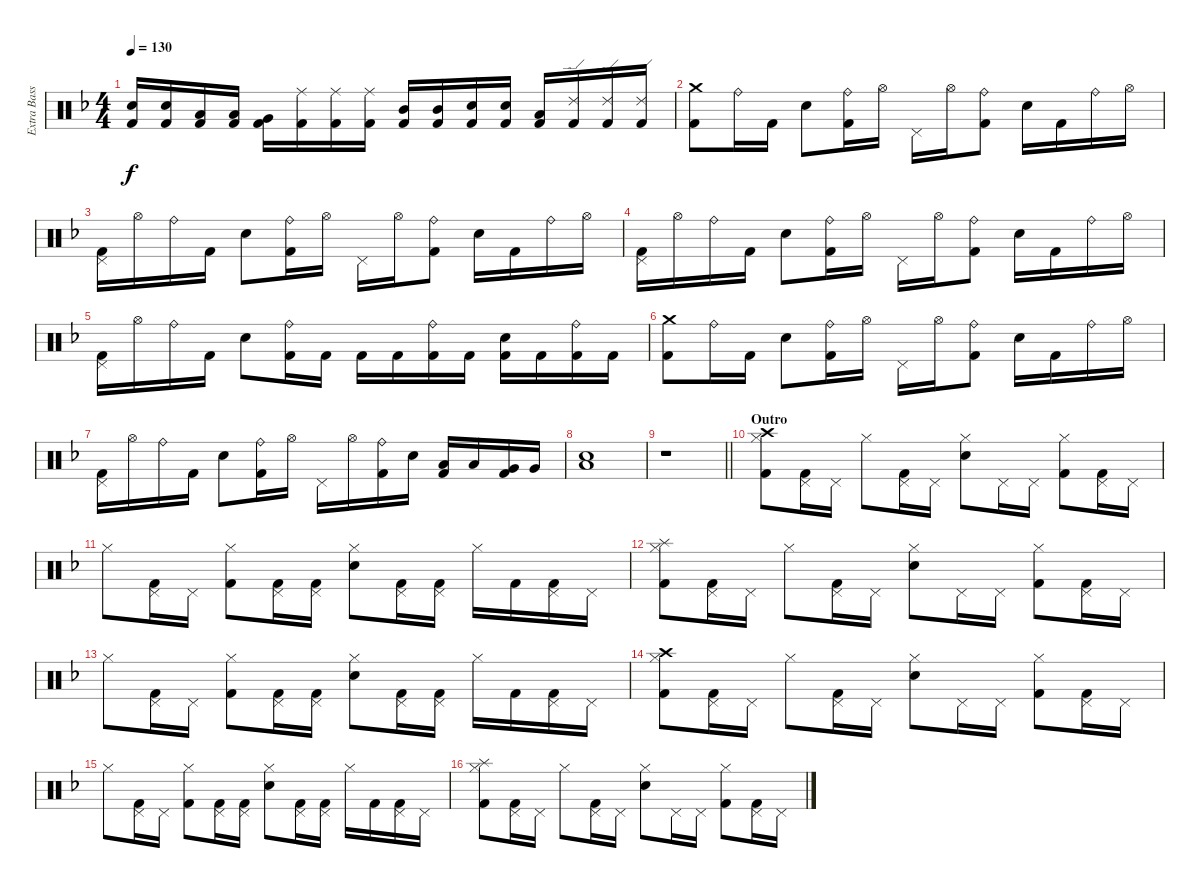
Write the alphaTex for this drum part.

\track ("Extra BassDrum" "Extra Bass") {instrument percussion}
\staff {score}
\articulation defaults
\ts (4 4)
\tempo 130
\clef neutral
\ks f
("Snare (hit) 2" "Kick (hit) 2").16{dy f} ("Snare (hit) 2" "Kick (hit) 2").16 ("Low Tom (hit)" "Kick (hit) 2").16 ("Low Tom (hit)" "Kick (hit) 2").16 ("Very Low Tom (hit)" "Kick (hit) 2").16 ("Ride (middle)" "Kick (hit) 2").16 ("Ride (middle)" "Kick (hit) 2").16 ("Ride (middle)" "Kick (hit) 2").16 ("Mid Tom (hit)" "Kick (hit) 2").16 ("Mid Tom (hit)" "Kick (hit) 2").16 ("Snare (hit) 2" "Kick (hit) 2").16 ("Snare (hit) 2" "Kick (hit) 2").16 ("Low Tom (hit)" "Kick (hit) 2").16 ("Ride (edge) 2" "Kick (hit) 2").16 ("Ride (edge) 2" "Kick (hit) 2").16 ("Ride (edge) 2" "Kick (hit) 2").16 |
("Crash medium (hit)" "Kick (hit) 2").8 "Ride (bell)".16 "Kick (hit) 2".16 "Snare (hit) 2".8 ("Ride (bell)" "Kick (hit) 2").16 "Hi-Hat (open)".16 "Pedal Hi-Hat (hit)".16 "Hi-Hat (open)".16 ("Ride (bell)" "Kick (hit) 2").8 "Snare (hit) 2".16 "Kick (hit) 2".16 "Ride (bell)".16 "Hi-Hat (open)".16 |
("Pedal Hi-Hat (hit)" "Kick (hit) 2").16 "Hi-Hat (open)".16 "Ride (bell)".16 "Kick (hit) 2".16 "Snare (hit) 2".8 ("Ride (bell)" "Kick (hit) 2").16 "Hi-Hat (open)".16 "Pedal Hi-Hat (hit)".16 "Hi-Hat (open)".16 ("Ride (bell)" "Kick (hit) 2").8 "Snare (hit) 2".16 "Kick (hit) 2".16 "Ride (bell)".16 "Hi-Hat (open)".16 |
("Pedal Hi-Hat (hit)" "Kick (hit) 2").16 "Hi-Hat (open)".16 "Ride (bell)".16 "Kick (hit) 2".16 "Snare (hit) 2".8 ("Ride (bell)" "Kick (hit) 2").16 "Hi-Hat (open)".16 "Pedal Hi-Hat (hit)".16 "Hi-Hat (open)".16 ("Ride (bell)" "Kick (hit) 2").8 "Snare (hit) 2".16 "Kick (hit) 2".16 "Ride (bell)".16 "Hi-Hat (open)".16 |
("Pedal Hi-Hat (hit)" "Kick (hit) 2").16 "Hi-Hat (open)".16 "Ride (bell)".16 "Kick (hit) 2".16 "Snare (hit) 2".8 ("Ride (bell)" "Kick (hit) 2").16 "Kick (hit) 2".16 "Kick (hit) 2".16 "Kick (hit) 2".16 ("Ride (bell)" "Kick (hit) 2").16 "Kick (hit) 2".16 ("Snare (hit) 2" "Kick (hit) 2").16 "Kick (hit) 2".16 ("Ride (bell)" "Kick (hit) 2").16 "Kick (hit) 2".16 |
("Crash medium (hit)" "Kick (hit) 2").8 "Ride (bell)".16 "Kick (hit) 2".16 "Snare (hit) 2".8 ("Ride (bell)" "Kick (hit) 2").16 "Hi-Hat (open)".16 "Pedal Hi-Hat (hit)".16 "Hi-Hat (open)".16 ("Ride (bell)" "Kick (hit) 2").8 "Snare (hit) 2".16 "Kick (hit) 2".16 "Ride (bell)".16 "Hi-Hat (open)".16 |
("Pedal Hi-Hat (hit)" "Kick (hit) 2").16 "Hi-Hat (open)".16 "Ride (bell)".16 "Kick (hit) 2".16 "Snare (hit) 2".8 ("Ride (bell)" "Kick (hit) 2").16 "Hi-Hat (open)".16 "Pedal Hi-Hat (hit)".16 "Hi-Hat (open)".16 ("Ride (bell)" "Kick (hit) 2").16 "Snare (hit) 2".16 ("Low Tom (hit)" "Kick (hit) 2").16 "Low Tom (hit)".16 ("Very Low Tom (hit)" "Kick (hit) 2").16 "Very Low Tom (hit)".16 |
("Low Floor Tom (hit)" "Snare (hit) 2").1 |
\barLineRight lightlight
r.1 |
\section ("" "Outro")
("Crash high (hit)" "Hi-Hat (closed)" "Kick (hit) 2").8 ("Pedal Hi-Hat (hit)" "Kick (hit) 2").16 "Pedal Hi-Hat (hit)".16 "Hi-Hat (closed)".8 ("Pedal Hi-Hat (hit)" "Kick (hit) 2").16 "Pedal Hi-Hat (hit)".16 ("Hi-Hat (closed)" "Snare (hit) 2").8 "Pedal Hi-Hat (hit)".16 "Pedal Hi-Hat (hit)".16 ("Hi-Hat (closed)" "Kick (hit) 2").8 ("Pedal Hi-Hat (hit)" "Kick (hit) 2").16 "Pedal Hi-Hat (hit)".16 |
"Hi-Hat (closed)".8 ("Pedal Hi-Hat (hit)" "Kick (hit) 2").16 "Pedal Hi-Hat (hit)".16 ("Hi-Hat (closed)" "Kick (hit) 2").8 ("Pedal Hi-Hat (hit)" "Kick (hit) 2").16 ("Pedal Hi-Hat (hit)" "Kick (hit) 2").16 ("Hi-Hat (closed)" "Snare (hit) 2").8 ("Pedal Hi-Hat (hit)" "Kick (hit) 2").16 ("Pedal Hi-Hat (hit)" "Kick (hit) 2").16 "Hi-Hat (closed)".16 "Kick (hit) 2".16 ("Pedal Hi-Hat (hit)" "Kick (hit) 2").16 "Pedal Hi-Hat (hit)".16 |
("Splash (hit)" "Hi-Hat (closed)" "Kick (hit) 2").8 ("Pedal Hi-Hat (hit)" "Kick (hit) 2").16 "Pedal Hi-Hat (hit)".16 "Hi-Hat (closed)".8 ("Pedal Hi-Hat (hit)" "Kick (hit) 2").16 "Pedal Hi-Hat (hit)".16 ("Hi-Hat (closed)" "Snare (hit) 2").8 "Pedal Hi-Hat (hit)".16 "Pedal Hi-Hat (hit)".16 ("Hi-Hat (closed)" "Kick (hit) 2").8 ("Pedal Hi-Hat (hit)" "Kick (hit) 2").16 "Pedal Hi-Hat (hit)".16 |
"Hi-Hat (closed)".8 ("Pedal Hi-Hat (hit)" "Kick (hit) 2").16 "Pedal Hi-Hat (hit)".16 ("Hi-Hat (closed)" "Kick (hit) 2").8 ("Pedal Hi-Hat (hit)" "Kick (hit) 2").16 ("Pedal Hi-Hat (hit)" "Kick (hit) 2").16 ("Hi-Hat (closed)" "Snare (hit) 2").8 ("Pedal Hi-Hat (hit)" "Kick (hit) 2").16 ("Pedal Hi-Hat (hit)" "Kick (hit) 2").16 "Hi-Hat (closed)".16 "Kick (hit) 2".16 ("Pedal Hi-Hat (hit)" "Kick (hit) 2").16 "Pedal Hi-Hat (hit)".16 |
("Crash high (hit)" "Hi-Hat (closed)" "Kick (hit) 2").8 ("Pedal Hi-Hat (hit)" "Kick (hit) 2").16 "Pedal Hi-Hat (hit)".16 "Hi-Hat (closed)".8 ("Pedal Hi-Hat (hit)" "Kick (hit) 2").16 "Pedal Hi-Hat (hit)".16 ("Hi-Hat (closed)" "Snare (hit) 2").8 "Pedal Hi-Hat (hit)".16 "Pedal Hi-Hat (hit)".16 ("Hi-Hat (closed)" "Kick (hit) 2").8 ("Pedal Hi-Hat (hit)" "Kick (hit) 2").16 "Pedal Hi-Hat (hit)".16 |
"Hi-Hat (closed)".8 ("Pedal Hi-Hat (hit)" "Kick (hit) 2").16 "Pedal Hi-Hat (hit)".16 ("Hi-Hat (closed)" "Kick (hit) 2").8 ("Pedal Hi-Hat (hit)" "Kick (hit) 2").16 ("Pedal Hi-Hat (hit)" "Kick (hit) 2").16 ("Hi-Hat (closed)" "Snare (hit) 2").8 ("Pedal Hi-Hat (hit)" "Kick (hit) 2").16 ("Pedal Hi-Hat (hit)" "Kick (hit) 2").16 "Hi-Hat (closed)".16 "Kick (hit) 2".16 ("Pedal Hi-Hat (hit)" "Kick (hit) 2").16 "Pedal Hi-Hat (hit)".16 |
("Splash (hit)" "Hi-Hat (closed)" "Kick (hit) 2").8 ("Pedal Hi-Hat (hit)" "Kick (hit) 2").16 "Pedal Hi-Hat (hit)".16 "Hi-Hat (closed)".8 ("Pedal Hi-Hat (hit)" "Kick (hit) 2").16 "Pedal Hi-Hat (hit)".16 ("Hi-Hat (closed)" "Snare (hit) 2").8 "Pedal Hi-Hat (hit)".16 "Pedal Hi-Hat (hit)".16 ("Hi-Hat (closed)" "Kick (hit) 2").8 ("Pedal Hi-Hat (hit)" "Kick (hit) 2").16 "Pedal Hi-Hat (hit)".16
